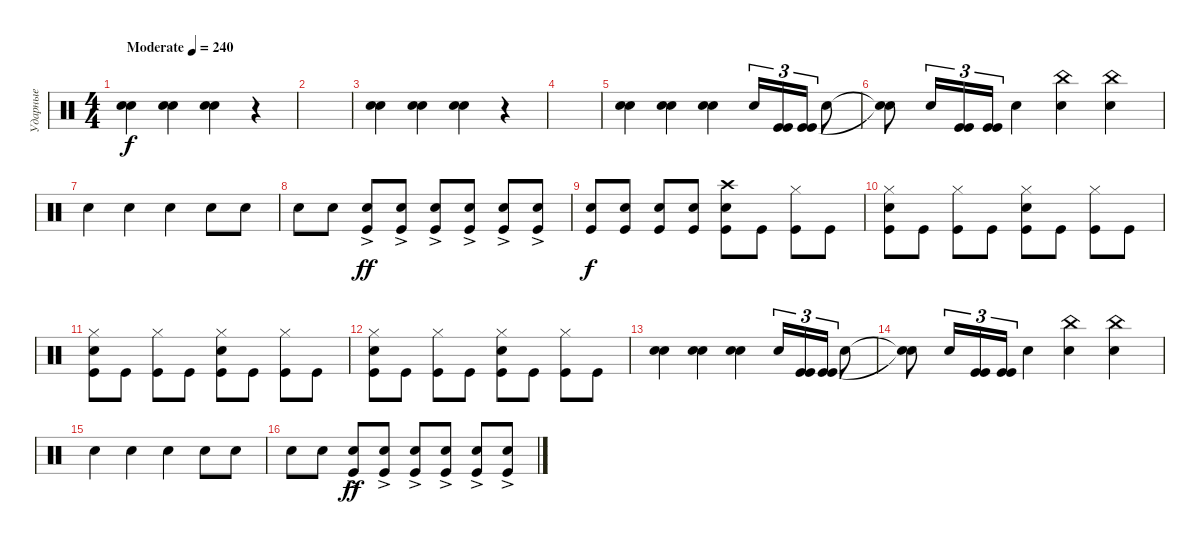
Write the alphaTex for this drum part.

\track ("Ударные" "Ударные") {instrument percussion}
\staff {score}
\articulation defaults
\ts (4 4)
\tempo (240 "Moderate")
\clef neutral
\ks c
("Electric Snare (hit)" "Electric Snare (hit)").4{dy f} ("Electric Snare (hit)" "Electric Snare (hit)").4 ("Electric Snare (hit)" "Electric Snare (hit)").4 r.4 |
|
("Electric Snare (hit)" "Electric Snare (hit)").4 ("Electric Snare (hit)" "Electric Snare (hit)").4 ("Electric Snare (hit)" "Electric Snare (hit)").4 r.4 |
|
("Electric Snare (hit)" "Electric Snare (hit)").4 ("Electric Snare (hit)" "Electric Snare (hit)").4 ("Electric Snare (hit)" "Electric Snare (hit)").4 "Electric Snare (hit)".16{tu (3 2)} ("Kick (hit)" "Kick (hit)").16{tu (3 2)} ("Kick (hit)" "Kick (hit)").16{tu (3 2)} "Electric Snare (hit)".8 |
("Electric Snare (hit)"{t} "Electric Snare (hit)"{t}).8 "Electric Snare (hit)".16{tu (3 2)} ("Kick (hit)" "Kick (hit)").16{tu (3 2)} ("Kick (hit)" "Kick (hit)").16{tu (3 2)} "Electric Snare (hit)".4 ("China (hit)" "Electric Snare (hit)").4 ("China (hit)" "Electric Snare (hit)").4 |
"Electric Snare (hit)".4 "Electric Snare (hit)".4 "Electric Snare (hit)".4 "Electric Snare (hit)".8 "Electric Snare (hit)".8 |
"Electric Snare (hit)".8 "Electric Snare (hit)".8 ("Electric Snare (hit)" "Kick (hit)"{ac}).8{dy ff} ("Electric Snare (hit)" "Kick (hit)"{ac}).8 ("Electric Snare (hit)" "Kick (hit)"{ac}).8 ("Electric Snare (hit)" "Kick (hit)"{ac}).8 ("Electric Snare (hit)" "Kick (hit)"{ac}).8 ("Electric Snare (hit)" "Kick (hit)"{ac}).8 |
("Electric Snare (hit)" "Kick (hit)").8{dy f} ("Electric Snare (hit)" "Kick (hit)").8 ("Electric Snare (hit)" "Kick (hit)").8 ("Electric Snare (hit)" "Kick (hit)").8 ("Crash high (hit)" "Kick (hit)" "Electric Snare (hit)").8 "Kick (hit)".8 ("Hi-Hat (closed)" "Kick (hit)").8 "Kick (hit)".8 |
("Hi-Hat (closed)" "Electric Snare (hit)" "Kick (hit)").8 "Kick (hit)".8 ("Hi-Hat (closed)" "Kick (hit)").8 "Kick (hit)".8 ("Hi-Hat (closed)" "Electric Snare (hit)" "Kick (hit)").8 "Kick (hit)".8 ("Hi-Hat (closed)" "Kick (hit)").8 "Kick (hit)".8 |
("Hi-Hat (closed)" "Electric Snare (hit)" "Kick (hit)").8 "Kick (hit)".8 ("Hi-Hat (closed)" "Kick (hit)").8 "Kick (hit)".8 ("Hi-Hat (closed)" "Electric Snare (hit)" "Kick (hit)").8 "Kick (hit)".8 ("Hi-Hat (closed)" "Kick (hit)").8 "Kick (hit)".8 |
("Hi-Hat (closed)" "Electric Snare (hit)" "Kick (hit)").8 "Kick (hit)".8 ("Hi-Hat (closed)" "Kick (hit)").8 "Kick (hit)".8 ("Hi-Hat (closed)" "Electric Snare (hit)" "Kick (hit)").8 "Kick (hit)".8 ("Hi-Hat (closed)" "Kick (hit)").8 "Kick (hit)".8 |
("Electric Snare (hit)" "Electric Snare (hit)").4 ("Electric Snare (hit)" "Electric Snare (hit)").4 ("Electric Snare (hit)" "Electric Snare (hit)").4 "Electric Snare (hit)".16{tu (3 2)} ("Kick (hit)" "Kick (hit)").16{tu (3 2)} ("Kick (hit)" "Kick (hit)").16{tu (3 2)} "Electric Snare (hit)".8 |
("Electric Snare (hit)"{t} "Electric Snare (hit)"{t}).8 "Electric Snare (hit)".16{tu (3 2)} ("Kick (hit)" "Kick (hit)").16{tu (3 2)} ("Kick (hit)" "Kick (hit)").16{tu (3 2)} "Electric Snare (hit)".4 ("China (hit)" "Electric Snare (hit)").4 ("China (hit)" "Electric Snare (hit)").4 |
"Electric Snare (hit)".4 "Electric Snare (hit)".4 "Electric Snare (hit)".4 "Electric Snare (hit)".8 "Electric Snare (hit)".8 |
"Electric Snare (hit)".8 "Electric Snare (hit)".8 ("Electric Snare (hit)" "Kick (hit)"{ac}).8{dy ff} ("Electric Snare (hit)" "Kick (hit)"{ac}).8 ("Electric Snare (hit)" "Kick (hit)"{ac}).8 ("Electric Snare (hit)" "Kick (hit)"{ac}).8 ("Electric Snare (hit)" "Kick (hit)"{ac}).8 ("Electric Snare (hit)" "Kick (hit)"{ac}).8
